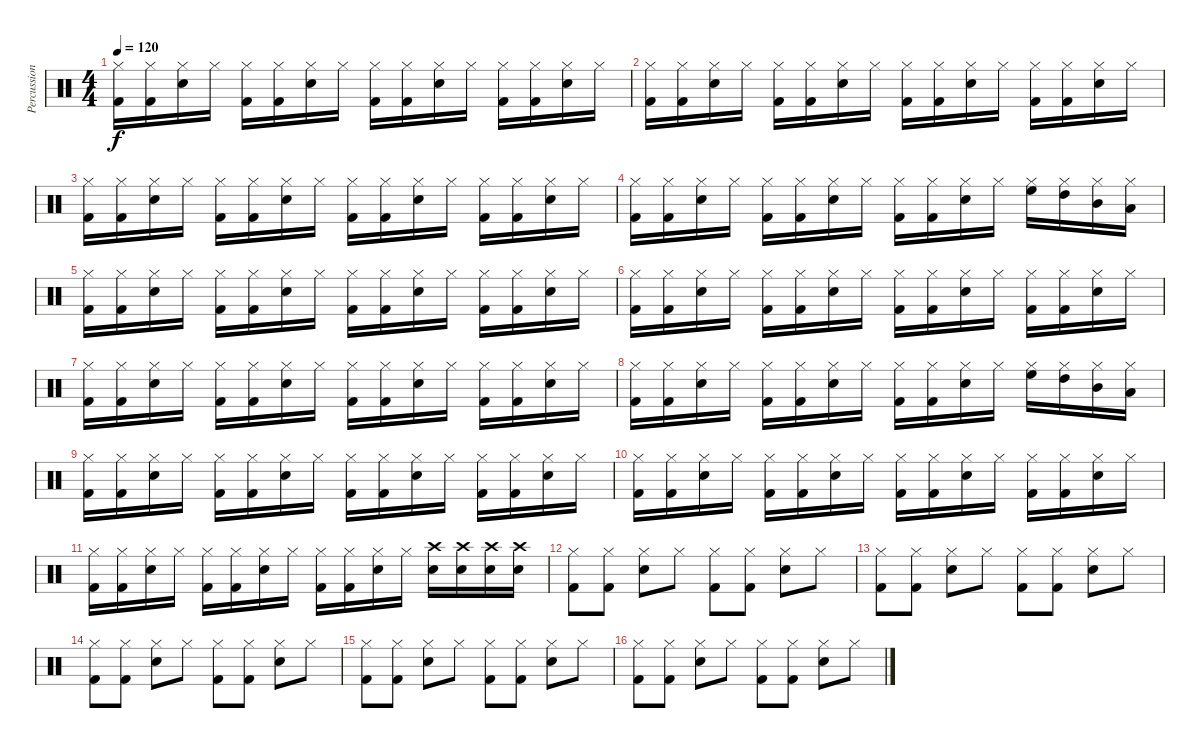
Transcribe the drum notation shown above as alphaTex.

\track ("Percussion" "Percussion") {instrument percussion}
\staff {score}
\articulation defaults
\ts (4 4)
\tempo 120
\clef neutral
\ks c
("Hi-Hat (closed)" "Kick (hit) 2").16{dy f} ("Hi-Hat (closed)" "Kick (hit) 2").16 ("Hi-Hat (closed)" "Snare (hit) 2").16 "Hi-Hat (closed)".16 ("Hi-Hat (closed)" "Kick (hit) 2").16 ("Hi-Hat (closed)" "Kick (hit) 2").16 ("Hi-Hat (closed)" "Snare (hit) 2").16 "Hi-Hat (closed)".16 ("Hi-Hat (closed)" "Kick (hit) 2").16 ("Hi-Hat (closed)" "Kick (hit) 2").16 ("Hi-Hat (closed)" "Snare (hit) 2").16 "Hi-Hat (closed)".16 ("Hi-Hat (closed)" "Kick (hit) 2").16 ("Hi-Hat (closed)" "Kick (hit) 2").16 ("Hi-Hat (closed)" "Snare (hit) 2").16 "Hi-Hat (closed)".16 |
("Hi-Hat (closed)" "Kick (hit) 2").16 ("Hi-Hat (closed)" "Kick (hit) 2").16 ("Hi-Hat (closed)" "Snare (hit) 2").16 "Hi-Hat (closed)".16 ("Hi-Hat (closed)" "Kick (hit) 2").16 ("Hi-Hat (closed)" "Kick (hit) 2").16 ("Hi-Hat (closed)" "Snare (hit) 2").16 "Hi-Hat (closed)".16 ("Hi-Hat (closed)" "Kick (hit) 2").16 ("Hi-Hat (closed)" "Kick (hit) 2").16 ("Hi-Hat (closed)" "Snare (hit) 2").16 "Hi-Hat (closed)".16 ("Hi-Hat (closed)" "Kick (hit) 2").16 ("Hi-Hat (closed)" "Kick (hit) 2").16 ("Hi-Hat (closed)" "Snare (hit) 2").16 "Hi-Hat (closed)".16 |
("Hi-Hat (closed)" "Kick (hit) 2").16 ("Hi-Hat (closed)" "Kick (hit) 2").16 ("Hi-Hat (closed)" "Snare (hit) 2").16 "Hi-Hat (closed)".16 ("Hi-Hat (closed)" "Kick (hit) 2").16 ("Hi-Hat (closed)" "Kick (hit) 2").16 ("Hi-Hat (closed)" "Snare (hit) 2").16 "Hi-Hat (closed)".16 ("Hi-Hat (closed)" "Kick (hit) 2").16 ("Hi-Hat (closed)" "Kick (hit) 2").16 ("Hi-Hat (closed)" "Snare (hit) 2").16 "Hi-Hat (closed)".16 ("Hi-Hat (closed)" "Kick (hit) 2").16 ("Hi-Hat (closed)" "Kick (hit) 2").16 ("Hi-Hat (closed)" "Snare (hit) 2").16 "Hi-Hat (closed)".16 |
("Hi-Hat (closed)" "Kick (hit) 2").16 ("Hi-Hat (closed)" "Kick (hit) 2").16 ("Hi-Hat (closed)" "Snare (hit) 2").16 "Hi-Hat (closed)".16 ("Hi-Hat (closed)" "Kick (hit) 2").16 ("Hi-Hat (closed)" "Kick (hit) 2").16 ("Hi-Hat (closed)" "Snare (hit) 2").16 "Hi-Hat (closed)".16 ("Hi-Hat (closed)" "Kick (hit) 2").16 ("Hi-Hat (closed)" "Kick (hit) 2").16 ("Hi-Hat (closed)" "Snare (hit) 2").16 "Hi-Hat (closed)".16 ("Hi-Hat (closed)" "High Floor Tom (hit)").16 ("Hi-Hat (closed)" "High Tom (hit)").16 ("Hi-Hat (closed)" "Mid Tom (hit)").16 ("Hi-Hat (closed)" "Low Tom (hit)").16 |
("Hi-Hat (closed)" "Kick (hit) 2").16 ("Hi-Hat (closed)" "Kick (hit) 2").16 ("Hi-Hat (closed)" "Snare (hit) 2").16 "Hi-Hat (closed)".16 ("Hi-Hat (closed)" "Kick (hit) 2").16 ("Hi-Hat (closed)" "Kick (hit) 2").16 ("Hi-Hat (closed)" "Snare (hit) 2").16 "Hi-Hat (closed)".16 ("Hi-Hat (closed)" "Kick (hit) 2").16 ("Hi-Hat (closed)" "Kick (hit) 2").16 ("Hi-Hat (closed)" "Snare (hit) 2").16 "Hi-Hat (closed)".16 ("Hi-Hat (closed)" "Kick (hit) 2").16 ("Hi-Hat (closed)" "Kick (hit) 2").16 ("Hi-Hat (closed)" "Snare (hit) 2").16 "Hi-Hat (closed)".16 |
("Hi-Hat (closed)" "Kick (hit) 2").16 ("Hi-Hat (closed)" "Kick (hit) 2").16 ("Hi-Hat (closed)" "Snare (hit) 2").16 "Hi-Hat (closed)".16 ("Hi-Hat (closed)" "Kick (hit) 2").16 ("Hi-Hat (closed)" "Kick (hit) 2").16 ("Hi-Hat (closed)" "Snare (hit) 2").16 "Hi-Hat (closed)".16 ("Hi-Hat (closed)" "Kick (hit) 2").16 ("Hi-Hat (closed)" "Kick (hit) 2").16 ("Hi-Hat (closed)" "Snare (hit) 2").16 "Hi-Hat (closed)".16 ("Hi-Hat (closed)" "Kick (hit) 2").16 ("Hi-Hat (closed)" "Kick (hit) 2").16 ("Hi-Hat (closed)" "Snare (hit) 2").16 "Hi-Hat (closed)".16 |
("Hi-Hat (closed)" "Kick (hit) 2").16 ("Hi-Hat (closed)" "Kick (hit) 2").16 ("Hi-Hat (closed)" "Snare (hit) 2").16 "Hi-Hat (closed)".16 ("Hi-Hat (closed)" "Kick (hit) 2").16 ("Hi-Hat (closed)" "Kick (hit) 2").16 ("Hi-Hat (closed)" "Snare (hit) 2").16 "Hi-Hat (closed)".16 ("Hi-Hat (closed)" "Kick (hit) 2").16 ("Hi-Hat (closed)" "Kick (hit) 2").16 ("Hi-Hat (closed)" "Snare (hit) 2").16 "Hi-Hat (closed)".16 ("Hi-Hat (closed)" "Kick (hit) 2").16 ("Hi-Hat (closed)" "Kick (hit) 2").16 ("Hi-Hat (closed)" "Snare (hit) 2").16 "Hi-Hat (closed)".16 |
("Hi-Hat (closed)" "Kick (hit) 2").16 ("Hi-Hat (closed)" "Kick (hit) 2").16 ("Hi-Hat (closed)" "Snare (hit) 2").16 "Hi-Hat (closed)".16 ("Hi-Hat (closed)" "Kick (hit) 2").16 ("Hi-Hat (closed)" "Kick (hit) 2").16 ("Hi-Hat (closed)" "Snare (hit) 2").16 "Hi-Hat (closed)".16 ("Hi-Hat (closed)" "Kick (hit) 2").16 ("Hi-Hat (closed)" "Kick (hit) 2").16 ("Hi-Hat (closed)" "Snare (hit) 2").16 "Hi-Hat (closed)".16 ("Hi-Hat (closed)" "High Floor Tom (hit)").16 ("Hi-Hat (closed)" "High Tom (hit)").16 ("Hi-Hat (closed)" "Mid Tom (hit)").16 ("Hi-Hat (closed)" "Low Tom (hit)").16 |
("Hi-Hat (closed)" "Kick (hit) 2").16 ("Hi-Hat (closed)" "Kick (hit) 2").16 ("Hi-Hat (closed)" "Snare (hit) 2").16 "Hi-Hat (closed)".16 ("Hi-Hat (closed)" "Kick (hit) 2").16 ("Hi-Hat (closed)" "Kick (hit) 2").16 ("Hi-Hat (closed)" "Snare (hit) 2").16 "Hi-Hat (closed)".16 ("Hi-Hat (closed)" "Kick (hit) 2").16 ("Hi-Hat (closed)" "Kick (hit) 2").16 ("Hi-Hat (closed)" "Snare (hit) 2").16 "Hi-Hat (closed)".16 ("Hi-Hat (closed)" "Kick (hit) 2").16 ("Hi-Hat (closed)" "Kick (hit) 2").16 ("Hi-Hat (closed)" "Snare (hit) 2").16 "Hi-Hat (closed)".16 |
("Hi-Hat (closed)" "Kick (hit) 2").16 ("Hi-Hat (closed)" "Kick (hit) 2").16 ("Hi-Hat (closed)" "Snare (hit) 2").16 "Hi-Hat (closed)".16 ("Hi-Hat (closed)" "Kick (hit) 2").16 ("Hi-Hat (closed)" "Kick (hit) 2").16 ("Hi-Hat (closed)" "Snare (hit) 2").16 "Hi-Hat (closed)".16 ("Hi-Hat (closed)" "Kick (hit) 2").16 ("Hi-Hat (closed)" "Kick (hit) 2").16 ("Hi-Hat (closed)" "Snare (hit) 2").16 "Hi-Hat (closed)".16 ("Hi-Hat (closed)" "Kick (hit) 2").16 ("Hi-Hat (closed)" "Kick (hit) 2").16 ("Hi-Hat (closed)" "Snare (hit) 2").16 "Hi-Hat (closed)".16 |
("Hi-Hat (closed)" "Kick (hit) 2").16 ("Hi-Hat (closed)" "Kick (hit) 2").16 ("Hi-Hat (closed)" "Snare (hit) 2").16 "Hi-Hat (closed)".16 ("Hi-Hat (closed)" "Kick (hit) 2").16 ("Hi-Hat (closed)" "Kick (hit) 2").16 ("Hi-Hat (closed)" "Snare (hit) 2").16 "Hi-Hat (closed)".16 ("Hi-Hat (closed)" "Kick (hit) 2").16 ("Hi-Hat (closed)" "Kick (hit) 2").16 ("Hi-Hat (closed)" "Snare (hit) 2").16 "Hi-Hat (closed)".16 ("Crash high (hit)" "Snare (hit) 2").16 ("Crash high (hit)" "Snare (hit) 2").16 ("Crash high (hit)" "Snare (hit) 2").16 ("Crash high (hit)" "Snare (hit) 2").16 |
("Hi-Hat (closed)" "Kick (hit) 2").8 ("Hi-Hat (closed)" "Kick (hit) 2").8 ("Hi-Hat (closed)" "Snare (hit) 2").8 "Hi-Hat (closed)".8 ("Hi-Hat (closed)" "Kick (hit) 2").8 ("Hi-Hat (closed)" "Kick (hit) 2").8 ("Hi-Hat (closed)" "Snare (hit) 2").8 "Hi-Hat (closed)".8 |
("Hi-Hat (closed)" "Kick (hit) 2").8 ("Hi-Hat (closed)" "Kick (hit) 2").8 ("Hi-Hat (closed)" "Snare (hit) 2").8 "Hi-Hat (closed)".8 ("Hi-Hat (closed)" "Kick (hit) 2").8 ("Hi-Hat (closed)" "Kick (hit) 2").8 ("Hi-Hat (closed)" "Snare (hit) 2").8 "Hi-Hat (closed)".8 |
("Hi-Hat (closed)" "Kick (hit) 2").8 ("Hi-Hat (closed)" "Kick (hit) 2").8 ("Hi-Hat (closed)" "Snare (hit) 2").8 "Hi-Hat (closed)".8 ("Hi-Hat (closed)" "Kick (hit) 2").8 ("Hi-Hat (closed)" "Kick (hit) 2").8 ("Hi-Hat (closed)" "Snare (hit) 2").8 "Hi-Hat (closed)".8 |
("Hi-Hat (closed)" "Kick (hit) 2").8 ("Hi-Hat (closed)" "Kick (hit) 2").8 ("Hi-Hat (closed)" "Snare (hit) 2").8 "Hi-Hat (closed)".8 ("Hi-Hat (closed)" "Kick (hit) 2").8 ("Hi-Hat (closed)" "Kick (hit) 2").8 ("Hi-Hat (closed)" "Snare (hit) 2").8 "Hi-Hat (closed)".8 |
("Hi-Hat (closed)" "Kick (hit) 2").8 ("Hi-Hat (closed)" "Kick (hit) 2").8 ("Hi-Hat (closed)" "Snare (hit) 2").8 "Hi-Hat (closed)".8 ("Hi-Hat (closed)" "Kick (hit) 2").8 ("Hi-Hat (closed)" "Kick (hit) 2").8 ("Hi-Hat (closed)" "Snare (hit) 2").8 "Hi-Hat (closed)".8
